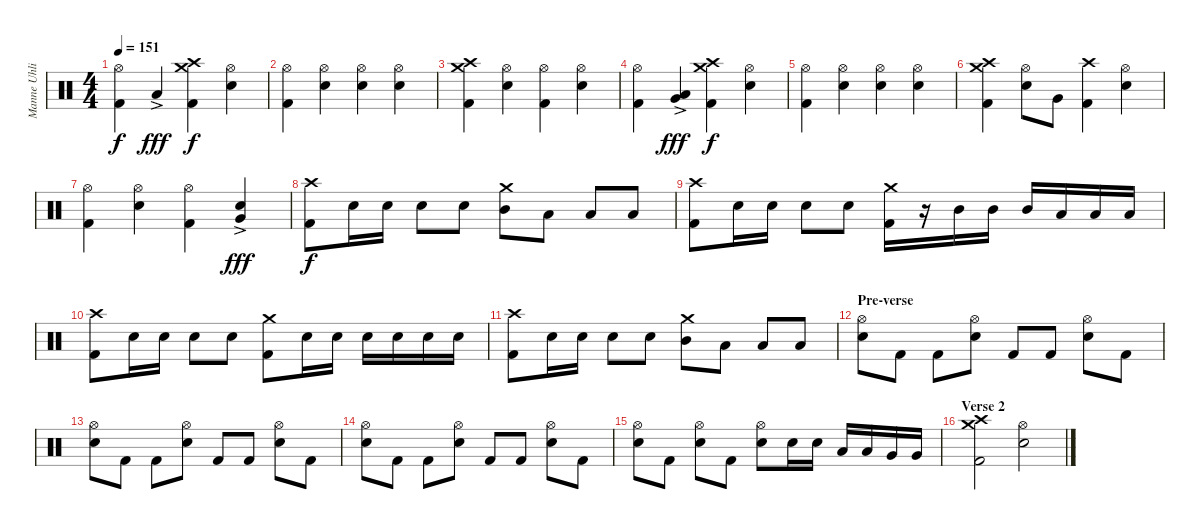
\track ("Manne Uhlig" "Manne Uhli") {instrument percussion}
\staff {score}
\articulation defaults
\ts (4 4)
\tempo 151
\clef neutral
\ks c
("Hi-Hat (open)" "Kick (hit) 2").4{dy f} "Low Tom (hit)"{ac}.4{dy fff} ("Crash high (hit)" "Crash medium (hit)" "Kick (hit) 2").4{dy f} ("Hi-Hat (open)" "Snare (hit) 2").4 |
("Hi-Hat (open)" "Kick (hit) 2").4 ("Hi-Hat (open)" "Snare (hit) 2").4 ("Hi-Hat (open)" "Snare (hit) 2").4 ("Hi-Hat (open)" "Snare (hit) 2").4 |
("Crash high (hit)" "Crash medium (hit)" "Kick (hit) 2").4 ("Hi-Hat (open)" "Snare (hit) 2").4 ("Hi-Hat (open)" "Kick (hit) 2").4 ("Hi-Hat (open)" "Snare (hit) 2").4 |
("Hi-Hat (open)" "Kick (hit) 2").4 ("Very Low Tom (hit)"{ac} "Low Floor Tom (hit)").4{dy fff} ("Crash high (hit)" "Crash medium (hit)" "Kick (hit) 2").4{dy f} ("Hi-Hat (open)" "Snare (hit) 2").4 |
("Hi-Hat (open)" "Kick (hit) 2").4 ("Hi-Hat (open)" "Snare (hit) 2").4 ("Hi-Hat (open)" "Snare (hit) 2").4 ("Hi-Hat (open)" "Snare (hit) 2").4 |
("Crash high (hit)" "Crash medium (hit)" "Kick (hit) 2").4 ("Hi-Hat (open)" "Snare (hit) 2").8 "Very Low Tom (hit)".8 ("Crash high (hit)" "Kick (hit) 2").4 ("Hi-Hat (open)" "Snare (hit) 2").4 |
("Hi-Hat (open)" "Kick (hit) 2").4 ("Hi-Hat (open)" "Snare (hit) 2").4 ("Hi-Hat (open)" "Kick (hit) 2").4 ("Snare (hit) 2" "Very Low Tom (hit)"{ac}).4{dy fff} |
("Crash high (hit)" "Kick (hit) 2").8{dy f} "Snare (hit) 2".16 "Snare (hit) 2".16 "Snare (hit) 2".8 "Snare (hit) 2".8 ("Crash medium (hit)" "Mid Tom (hit)").8 "Low Tom (hit)".8 "Low Tom (hit)".8 "Low Tom (hit)".8 |
("Crash high (hit)" "Kick (hit) 2").8 "Snare (hit) 2".16 "Snare (hit) 2".16 "Snare (hit) 2".8 "Snare (hit) 2".8 ("Crash medium (hit)" "Kick (hit) 2").16 r.16 "Mid Tom (hit)".16 "Mid Tom (hit)".16 "Mid Tom (hit)".16 "Low Tom (hit)".16 "Low Tom (hit)".16 "Low Tom (hit)".16 |
("Crash high (hit)" "Kick (hit) 2").8 "Snare (hit) 2".16 "Snare (hit) 2".16 "Snare (hit) 2".8 "Snare (hit) 2".8 ("Crash medium (hit)" "Kick (hit) 2").8 "Snare (hit) 2".16 "Snare (hit) 2".16 "Snare (hit) 2".16 "Snare (hit) 2".16 "Snare (hit) 2".16 "Snare (hit) 2".16 |
("Crash high (hit)" "Kick (hit) 2").8 "Snare (hit) 2".16 "Snare (hit) 2".16 "Snare (hit) 2".8 "Snare (hit) 2".8 ("Crash medium (hit)" "Mid Tom (hit)").8 "Low Tom (hit)".8 "Low Tom (hit)".8 "Low Tom (hit)".8 |
\section ("" "Pre-verse")
("Hi-Hat (open)" "Snare (hit) 2").8 "Kick (hit) 2".8 "Kick (hit) 2".8 ("Hi-Hat (open)" "Snare (hit) 2").8 "Kick (hit) 2".8 "Kick (hit) 2".8 ("Hi-Hat (open)" "Snare (hit) 2").8 "Kick (hit) 2".8 |
("Hi-Hat (open)" "Snare (hit) 2").8 "Kick (hit) 2".8 "Kick (hit) 2".8 ("Hi-Hat (open)" "Snare (hit) 2").8 "Kick (hit) 2".8 "Kick (hit) 2".8 ("Hi-Hat (open)" "Snare (hit) 2").8 "Kick (hit) 2".8 |
("Hi-Hat (open)" "Snare (hit) 2").8 "Kick (hit) 2".8 "Kick (hit) 2".8 ("Hi-Hat (open)" "Snare (hit) 2").8 "Kick (hit) 2".8 "Kick (hit) 2".8 ("Hi-Hat (open)" "Snare (hit) 2").8 "Kick (hit) 2".8 |
("Hi-Hat (open)" "Snare (hit) 2").8 "Kick (hit) 2".8 ("Hi-Hat (open)" "Snare (hit) 2").8 "Kick (hit) 2".8 ("Hi-Hat (open)" "Snare (hit) 2").8 "Snare (hit) 2".16 "Snare (hit) 2".16 "Low Tom (hit)".16 "Low Tom (hit)".16 "Very Low Tom (hit)".16 "Very Low Tom (hit)".16 |
\section ("" "Verse 2")
("Crash high (hit)" "Crash medium (hit)" "Kick (hit) 2").2 ("Hi-Hat (open)" "Snare (hit) 2").2
